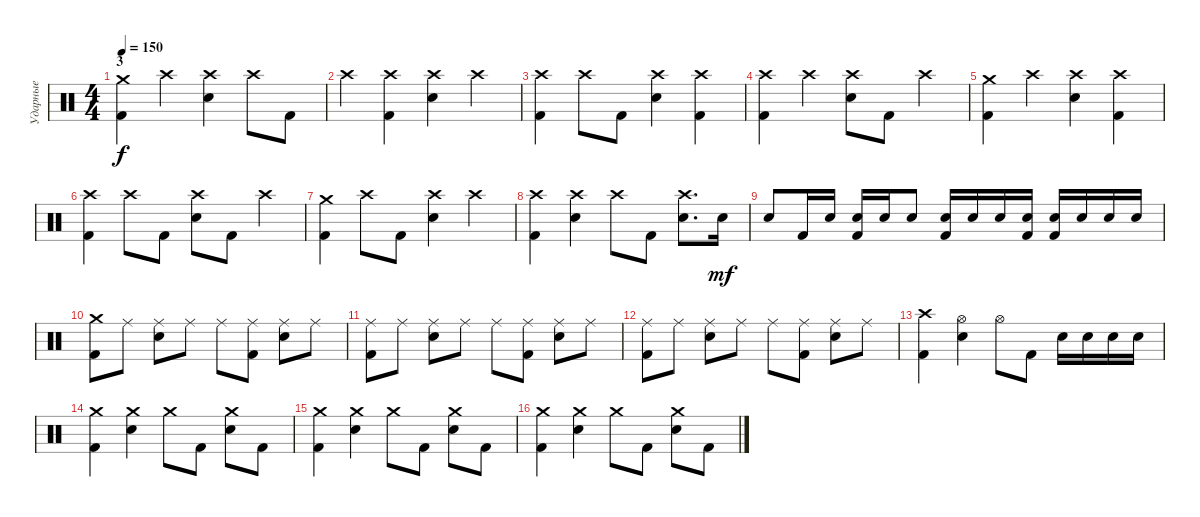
\track ("Ударные" "Ударные") {instrument percussion}
\staff {score}
\articulation defaults
\ts (4 4)
\section ("" "3")
\tempo 150
\clef neutral
\ks c
("Crash medium (hit)" "Kick (hit) 2").4{dy f} "Crash high (hit)".4 ("Crash high (hit)" "Electric Snare (hit)").4 "Crash high (hit)".8 "Kick (hit) 2".8 |
"Crash high (hit)".4 ("Crash high (hit)" "Kick (hit) 2").4 ("Crash high (hit)" "Electric Snare (hit)").4 "Crash high (hit)".4 |
("Crash high (hit)" "Kick (hit) 2").4 "Crash high (hit)".8 "Kick (hit) 2".8 ("Crash high (hit)" "Electric Snare (hit)").4 ("Crash high (hit)" "Kick (hit) 2").4 |
("Crash high (hit)" "Kick (hit) 2").4 "Crash high (hit)".4 ("Crash high (hit)" "Electric Snare (hit)").8 "Kick (hit) 2".8 "Crash high (hit)".4 |
("Crash medium (hit)" "Kick (hit) 2").4 "Crash high (hit)".4 ("Crash high (hit)" "Electric Snare (hit)").4 ("Crash high (hit)" "Kick (hit) 2").4 |
("Crash high (hit)" "Kick (hit) 2").4 "Crash high (hit)".8 "Kick (hit) 2".8 ("Crash high (hit)" "Electric Snare (hit)").8 "Kick (hit) 2".8 "Crash high (hit)".4 |
("Crash medium (hit)" "Kick (hit) 2").4 "Crash high (hit)".8 "Kick (hit) 2".8 ("Crash high (hit)" "Electric Snare (hit)").4 "Crash high (hit)".4 |
("Crash high (hit)" "Kick (hit) 2").4 ("Crash high (hit)" "Electric Snare (hit)").4 "Crash high (hit)".8 "Kick (hit) 2".8 ("Crash high (hit)" "Electric Snare (hit)").8{d} "Snare (hit) 2".16{dy mf} |
"Snare (hit) 2".8 "Kick (hit) 2".16 "Snare (hit) 2".16 ("Snare (hit) 2" "Kick (hit) 2").16 "Snare (hit) 2".16 "Snare (hit) 2".8 ("Snare (hit) 2" "Kick (hit) 2").16 "Snare (hit) 2".16 "Snare (hit) 2".16 ("Snare (hit) 2" "Kick (hit) 2").16 ("Snare (hit) 2" "Kick (hit) 2").16 "Snare (hit) 2".16 "Snare (hit) 2".16 "Snare (hit) 2".16 |
("Crash medium (hit)" "Kick (hit) 2").8 "Ride (middle)".8 ("Ride (middle)" "Electric Snare (hit)").8 "Ride (middle)".8 "Ride (middle)".8 ("Ride (middle)" "Kick (hit) 2").8 ("Ride (middle)" "Electric Snare (hit)").8 "Ride (middle)".8 |
("Ride (middle)" "Kick (hit) 2").8 "Ride (middle)".8 ("Ride (middle)" "Electric Snare (hit)").8 "Ride (middle)".8 "Ride (middle)".8 ("Ride (middle)" "Kick (hit) 2").8 ("Ride (middle)" "Electric Snare (hit)").8 "Ride (middle)".8 |
("Ride (middle)" "Kick (hit) 2").8 "Ride (middle)".8 ("Ride (middle)" "Electric Snare (hit)").8 "Ride (middle)".8 "Ride (middle)".8 ("Ride (middle)" "Kick (hit) 2").8 ("Ride (middle)" "Electric Snare (hit)").8 "Ride (middle)".8 |
("Crash high (hit)" "Kick (hit) 2").4 ("Hi-Hat (open)" "Electric Snare (hit)").4 "Hi-Hat (open)".8 "Kick (hit) 2".8 "Electric Snare (hit)".16 "Electric Snare (hit)".16 "Electric Snare (hit)".16 "Electric Snare (hit)".16 |
("Crash medium (hit)" "Kick (hit) 2").4 ("Crash medium (hit)" "Electric Snare (hit)").4 "Crash medium (hit)".8 "Kick (hit) 2".8 ("Crash medium (hit)" "Electric Snare (hit)").8 "Kick (hit) 2".8 |
("Crash medium (hit)" "Kick (hit) 2").4 ("Crash medium (hit)" "Electric Snare (hit)").4 "Crash medium (hit)".8 "Kick (hit) 2".8 ("Crash medium (hit)" "Electric Snare (hit)").8 "Kick (hit) 2".8 |
("Crash medium (hit)" "Kick (hit) 2").4 ("Crash medium (hit)" "Electric Snare (hit)").4 "Crash medium (hit)".8 "Kick (hit) 2".8 ("Crash medium (hit)" "Electric Snare (hit)").8 "Kick (hit) 2".8
